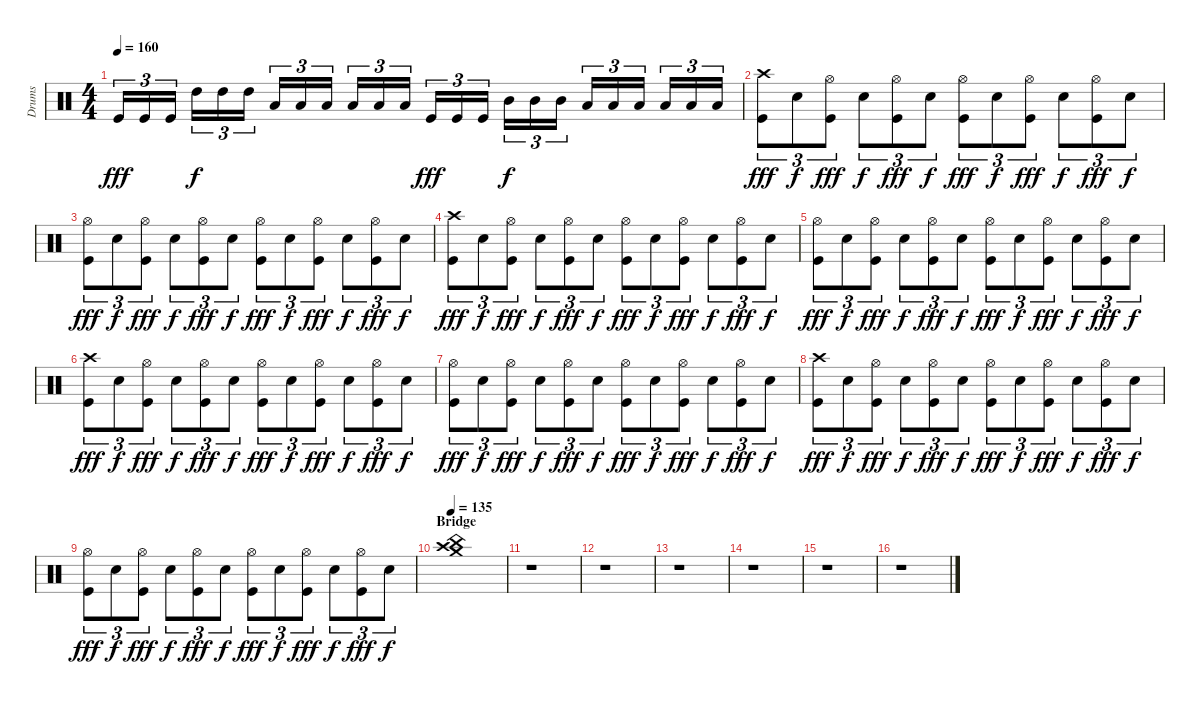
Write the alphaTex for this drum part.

\track ("Drums" "Drums") {instrument percussion}
\staff {score}
\articulation defaults
\ts (4 4)
\tempo 160
\clef neutral
\ks c "Kick (hit)".16{tu (3 2) dy fff} "Kick (hit)".16{tu (3 2)} "Kick (hit)".16{tu (3 2)} "High Tom (hit)".16{tu (3 2) dy f} "High Tom (hit)".16{tu (3 2)} "High Tom (hit)".16{tu (3 2)} "Low Tom (hit)".16{tu (3 2)} "Low Tom (hit)".16{tu (3 2)} "Low Tom (hit)".16{tu (3 2)} "Low Tom (hit)".16{tu (3 2)} "Low Tom (hit)".16{tu (3 2)} "Low Tom (hit)".16{tu (3 2)} "Kick (hit)".16{tu (3 2) dy fff} "Kick (hit)".16{tu (3 2)} "Kick (hit)".16{tu (3 2)} "Mid Tom (hit)".16{tu (3 2) dy f} "Mid Tom (hit)".16{tu (3 2)} "Mid Tom (hit)".16{tu (3 2)} "Low Tom (hit)".16{tu (3 2)} "Low Tom (hit)".16{tu (3 2)} "Low Tom (hit)".16{tu (3 2)} "Low Tom (hit)".16{tu (3 2)} "Low Tom (hit)".16{tu (3 2)} "Low Tom (hit)".16{tu (3 2)}
|
("Crash high (hit)" "Kick (hit)").8{tu (3 2) dy fff} "Electric Snare (hit)".8{tu (3 2) dy f} ("Hi-Hat (open)" "Kick (hit)").8{tu (3 2) dy fff} "Electric Snare (hit)".8{tu (3 2) dy f} ("Hi-Hat (open)" "Kick (hit)").8{tu (3 2) dy fff} "Electric Snare (hit)".8{tu (3 2) dy f} ("Hi-Hat (open)" "Kick (hit)").8{tu (3 2) dy fff} "Electric Snare (hit)".8{tu (3 2) dy f} ("Hi-Hat (open)" "Kick (hit)").8{tu (3 2) dy fff} "Electric Snare (hit)".8{tu (3 2) dy f} ("Hi-Hat (open)" "Kick (hit)").8{tu (3 2) dy fff} "Electric Snare (hit)".8{tu (3 2) dy f} |
("Hi-Hat (open)" "Kick (hit)").8{tu (3 2) dy fff} "Electric Snare (hit)".8{tu (3 2) dy f} ("Hi-Hat (open)" "Kick (hit)").8{tu (3 2) dy fff} "Electric Snare (hit)".8{tu (3 2) dy f} ("Hi-Hat (open)" "Kick (hit)").8{tu (3 2) dy fff} "Electric Snare (hit)".8{tu (3 2) dy f} ("Hi-Hat (open)" "Kick (hit)").8{tu (3 2) dy fff} "Electric Snare (hit)".8{tu (3 2) dy f} ("Hi-Hat (open)" "Kick (hit)").8{tu (3 2) dy fff} "Electric Snare (hit)".8{tu (3 2) dy f} ("Hi-Hat (open)" "Kick (hit)").8{tu (3 2) dy fff} "Electric Snare (hit)".8{tu (3 2) dy f} |
("Crash high (hit)" "Kick (hit)").8{tu (3 2) dy fff} "Electric Snare (hit)".8{tu (3 2) dy f} ("Hi-Hat (open)" "Kick (hit)").8{tu (3 2) dy fff} "Electric Snare (hit)".8{tu (3 2) dy f} ("Hi-Hat (open)" "Kick (hit)").8{tu (3 2) dy fff} "Electric Snare (hit)".8{tu (3 2) dy f} ("Hi-Hat (open)" "Kick (hit)").8{tu (3 2) dy fff} "Electric Snare (hit)".8{tu (3 2) dy f} ("Hi-Hat (open)" "Kick (hit)").8{tu (3 2) dy fff} "Electric Snare (hit)".8{tu (3 2) dy f} ("Hi-Hat (open)" "Kick (hit)").8{tu (3 2) dy fff} "Electric Snare (hit)".8{tu (3 2) dy f} |
("Hi-Hat (open)" "Kick (hit)").8{tu (3 2) dy fff} "Electric Snare (hit)".8{tu (3 2) dy f} ("Hi-Hat (open)" "Kick (hit)").8{tu (3 2) dy fff} "Electric Snare (hit)".8{tu (3 2) dy f} ("Hi-Hat (open)" "Kick (hit)").8{tu (3 2) dy fff} "Electric Snare (hit)".8{tu (3 2) dy f} ("Hi-Hat (open)" "Kick (hit)").8{tu (3 2) dy fff} "Electric Snare (hit)".8{tu (3 2) dy f} ("Hi-Hat (open)" "Kick (hit)").8{tu (3 2) dy fff} "Electric Snare (hit)".8{tu (3 2) dy f} ("Hi-Hat (open)" "Kick (hit)").8{tu (3 2) dy fff} "Electric Snare (hit)".8{tu (3 2) dy f} |
("Crash high (hit)" "Kick (hit)").8{tu (3 2) dy fff} "Electric Snare (hit)".8{tu (3 2) dy f} ("Hi-Hat (open)" "Kick (hit)").8{tu (3 2) dy fff} "Electric Snare (hit)".8{tu (3 2) dy f} ("Hi-Hat (open)" "Kick (hit)").8{tu (3 2) dy fff} "Electric Snare (hit)".8{tu (3 2) dy f} ("Hi-Hat (open)" "Kick (hit)").8{tu (3 2) dy fff} "Electric Snare (hit)".8{tu (3 2) dy f} ("Hi-Hat (open)" "Kick (hit)").8{tu (3 2) dy fff} "Electric Snare (hit)".8{tu (3 2) dy f} ("Hi-Hat (open)" "Kick (hit)").8{tu (3 2) dy fff} "Electric Snare (hit)".8{tu (3 2) dy f} |
("Hi-Hat (open)" "Kick (hit)").8{tu (3 2) dy fff} "Electric Snare (hit)".8{tu (3 2) dy f} ("Hi-Hat (open)" "Kick (hit)").8{tu (3 2) dy fff} "Electric Snare (hit)".8{tu (3 2) dy f} ("Hi-Hat (open)" "Kick (hit)").8{tu (3 2) dy fff} "Electric Snare (hit)".8{tu (3 2) dy f} ("Hi-Hat (open)" "Kick (hit)").8{tu (3 2) dy fff} "Electric Snare (hit)".8{tu (3 2) dy f} ("Hi-Hat (open)" "Kick (hit)").8{tu (3 2) dy fff} "Electric Snare (hit)".8{tu (3 2) dy f} ("Hi-Hat (open)" "Kick (hit)").8{tu (3 2) dy fff} "Electric Snare (hit)".8{tu (3 2) dy f} |
("Crash high (hit)" "Kick (hit)").8{tu (3 2) dy fff} "Electric Snare (hit)".8{tu (3 2) dy f} ("Hi-Hat (open)" "Kick (hit)").8{tu (3 2) dy fff} "Electric Snare (hit)".8{tu (3 2) dy f} ("Hi-Hat (open)" "Kick (hit)").8{tu (3 2) dy fff} "Electric Snare (hit)".8{tu (3 2) dy f} ("Hi-Hat (open)" "Kick (hit)").8{tu (3 2) dy fff} "Electric Snare (hit)".8{tu (3 2) dy f} ("Hi-Hat (open)" "Kick (hit)").8{tu (3 2) dy fff} "Electric Snare (hit)".8{tu (3 2) dy f} ("Hi-Hat (open)" "Kick (hit)").8{tu (3 2) dy fff} "Electric Snare (hit)".8{tu (3 2) dy f} |
("Hi-Hat (open)" "Kick (hit)").8{tu (3 2) dy fff} "Electric Snare (hit)".8{tu (3 2) dy f} ("Hi-Hat (open)" "Kick (hit)").8{tu (3 2) dy fff} "Electric Snare (hit)".8{tu (3 2) dy f} ("Hi-Hat (open)" "Kick (hit)").8{tu (3 2) dy fff} "Electric Snare (hit)".8{tu (3 2) dy f} ("Hi-Hat (open)" "Kick (hit)").8{tu (3 2) dy fff} "Electric Snare (hit)".8{tu (3 2) dy f} ("Hi-Hat (open)" "Kick (hit)").8{tu (3 2) dy fff} "Electric Snare (hit)".8{tu (3 2) dy f} ("Hi-Hat (open)" "Kick (hit)").8{tu (3 2) dy fff} "Electric Snare (hit)".8{tu (3 2) dy f} |
\section ("" "Bridge")
\tempo 135
("Crash high (hit)" "Crash medium (hit)" "China (hit)").1 |
r.1 |
r.1 |
r.1 |
r.1 |
r.1 |
r.1
